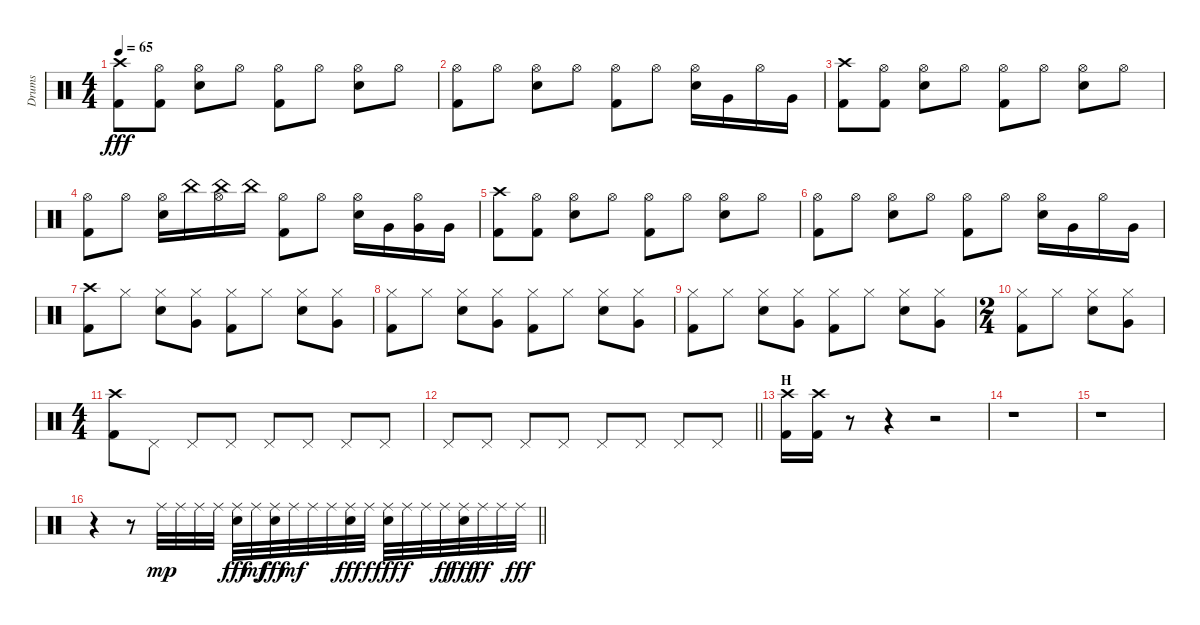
\track ("Drums" "Drums") {instrument percussion}
\staff {score}
\articulation defaults
\ts (4 4)
\tempo 65
\clef neutral
\ks c
("Crash high (hit)" "Kick (hit) 2").8{dy fff} ("Hi-Hat (open)" "Kick (hit) 2").8 ("Hi-Hat (open)" "Snare (hit) 2").8 "Hi-Hat (open)".8 ("Hi-Hat (open)" "Kick (hit) 2").8 "Hi-Hat (open)".8 ("Hi-Hat (open)" "Snare (hit) 2").8 "Hi-Hat (open)".8 |
("Hi-Hat (open)" "Kick (hit) 2").8 "Hi-Hat (open)".8 ("Hi-Hat (open)" "Snare (hit) 2").8 "Hi-Hat (open)".8 ("Hi-Hat (open)" "Kick (hit) 2").8 "Hi-Hat (open)".8 ("Hi-Hat (open)" "Snare (hit) 2").16 "Very Low Tom (hit)".16 "Hi-Hat (open)".16 "Very Low Tom (hit)".16 |
("Crash high (hit)" "Kick (hit) 2").8 ("Hi-Hat (open)" "Kick (hit) 2").8 ("Hi-Hat (open)" "Snare (hit) 2").8 "Hi-Hat (open)".8 ("Hi-Hat (open)" "Kick (hit) 2").8 "Hi-Hat (open)".8 ("Hi-Hat (open)" "Snare (hit) 2").8 "Hi-Hat (open)".8 |
("Hi-Hat (open)" "Kick (hit) 2").8 "Hi-Hat (open)".8 ("Hi-Hat (open)" "Snare (hit) 2").16 "China (hit)".16 ("Hi-Hat (open)" "China (hit)").16 "China (hit)".16 ("Hi-Hat (open)" "Kick (hit) 2").8 "Hi-Hat (open)".8 ("Hi-Hat (open)" "Snare (hit) 2").16 "Very Low Tom (hit)".16 ("Hi-Hat (open)" "Very Low Tom (hit)").16 "Very Low Tom (hit)".16 |
("Crash high (hit)" "Kick (hit) 2").8 ("Hi-Hat (open)" "Kick (hit) 2").8 ("Hi-Hat (open)" "Snare (hit) 2").8 "Hi-Hat (open)".8 ("Hi-Hat (open)" "Kick (hit) 2").8 "Hi-Hat (open)".8 ("Hi-Hat (open)" "Snare (hit) 2").8 "Hi-Hat (open)".8 |
("Hi-Hat (open)" "Kick (hit) 2").8 "Hi-Hat (open)".8 ("Hi-Hat (open)" "Snare (hit) 2").8 "Hi-Hat (open)".8 ("Hi-Hat (open)" "Kick (hit) 2").8 "Hi-Hat (open)".8 ("Hi-Hat (open)" "Snare (hit) 2").16 "Very Low Tom (hit)".16 "Hi-Hat (open)".16 "Very Low Tom (hit)".16 |
("Crash high (hit)" "Kick (hit) 2").8 "Hi-Hat (closed)".8 ("Hi-Hat (closed)" "Snare (hit) 2").8 ("Hi-Hat (closed)" "Very Low Tom (hit)").8 ("Hi-Hat (closed)" "Kick (hit) 2").8 "Hi-Hat (closed)".8 ("Hi-Hat (closed)" "Snare (hit) 2").8 ("Hi-Hat (closed)" "Very Low Tom (hit)").8 |
("Hi-Hat (closed)" "Kick (hit) 2").8 "Hi-Hat (closed)".8 ("Hi-Hat (closed)" "Snare (hit) 2").8 ("Hi-Hat (closed)" "Very Low Tom (hit)").8 ("Hi-Hat (closed)" "Kick (hit) 2").8 "Hi-Hat (closed)".8 ("Hi-Hat (closed)" "Snare (hit) 2").8 ("Hi-Hat (closed)" "Very Low Tom (hit)").8 |
("Hi-Hat (closed)" "Kick (hit) 2").8 "Hi-Hat (closed)".8 ("Hi-Hat (closed)" "Snare (hit) 2").8 ("Hi-Hat (closed)" "Very Low Tom (hit)").8 ("Hi-Hat (closed)" "Kick (hit) 2").8 "Hi-Hat (closed)".8 ("Hi-Hat (closed)" "Snare (hit) 2").8 ("Hi-Hat (closed)" "Very Low Tom (hit)").8 |
\ts (2 4)
("Hi-Hat (closed)" "Kick (hit) 2").8 "Hi-Hat (closed)".8 ("Hi-Hat (closed)" "Snare (hit) 2").8 ("Hi-Hat (closed)" "Very Low Tom (hit)").8 |
\ts (4 4)
("Crash high (hit)" "Kick (hit) 2").8 "Pedal Hi-Hat (hit)".8 "Pedal Hi-Hat (hit)".8 "Pedal Hi-Hat (hit)".8 "Pedal Hi-Hat (hit)".8 "Pedal Hi-Hat (hit)".8 "Pedal Hi-Hat (hit)".8 "Pedal Hi-Hat (hit)".8 |
\barLineRight lightlight "Pedal Hi-Hat (hit)".8 "Pedal Hi-Hat (hit)".8 "Pedal Hi-Hat (hit)".8 "Pedal Hi-Hat (hit)".8 "Pedal Hi-Hat (hit)".8 "Pedal Hi-Hat (hit)".8 "Pedal Hi-Hat (hit)".8 "Pedal Hi-Hat (hit)".8
|
\section ("" "H")
("Crash high (hit)" "Kick (hit) 2").16 ("Crash high (hit)" "Kick (hit) 2").16 r.8 r.4 r.2 |
r.1 |
r.1 |
\barLineRight lightlight
r.4 r.8 "Ride (middle)".32{dy mp} "Ride (middle)".32 "Ride (middle)".32 "Ride (middle)".32 ("Ride (middle)" "Snare (hit) 2").32{dy fff} "Ride (middle)".32{dy mf} ("Ride (middle)" "Snare (hit) 2").32{dy fff} "Ride (middle)".32{dy mf} "Ride (middle)".32 "Ride (middle)".32 ("Ride (middle)" "Snare (hit) 2").32{dy fff} "Ride (middle)".32{dy f} ("Ride (middle)" "Snare (hit) 2").32{dy fff} "Ride (middle)".32{dy f} "Ride (middle)".32 "Ride (middle)".32{dy ff} ("Ride (middle)" "Snare (hit) 2").32{dy fff} "Ride (middle)".32{dy ff} "Ride (middle)".32 "Ride (middle)".32{dy fff}
